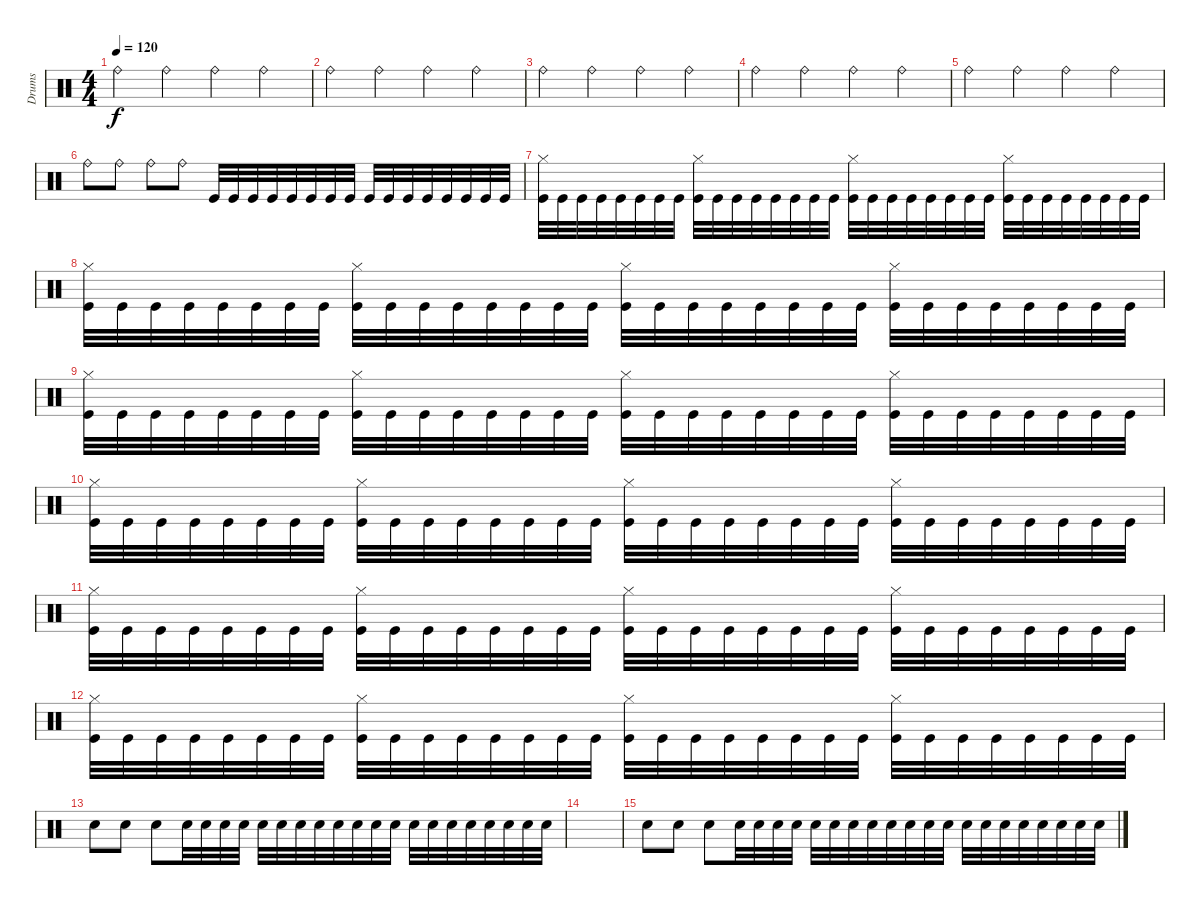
\track ("Drums" "Drums") {instrument percussion}
\staff {score}
\articulation defaults
\ts (4 4)
\tempo 120
\clef neutral
\ks c "Ride (bell)".4{dy f} "Ride (bell)".4 "Ride (bell)".4 "Ride (bell)".4
|
"Ride (bell)".4 "Ride (bell)".4 "Ride (bell)".4 "Ride (bell)".4 |
"Ride (bell)".4 "Ride (bell)".4 "Ride (bell)".4 "Ride (bell)".4 |
"Ride (bell)".4 "Ride (bell)".4 "Ride (bell)".4 "Ride (bell)".4 |
"Ride (bell)".4 "Ride (bell)".4 "Ride (bell)".4 "Ride (bell)".4 |
"Ride (bell)".8 "Ride (bell)".8 "Ride (bell)".8 "Ride (bell)".8 "Kick (hit)".32 "Kick (hit)".32 "Kick (hit)".32 "Kick (hit)".32 "Kick (hit)".32 "Kick (hit)".32 "Kick (hit)".32 "Kick (hit)".32 "Kick (hit)".32 "Kick (hit)".32 "Kick (hit)".32 "Kick (hit)".32 "Kick (hit)".32 "Kick (hit)".32 "Kick (hit)".32 "Kick (hit)".32 |
("Hi-Hat (closed)" "Kick (hit)").32 "Kick (hit)".32 "Kick (hit)".32 "Kick (hit)".32 "Kick (hit)".32 "Kick (hit)".32 "Kick (hit)".32 "Kick (hit)".32 ("Hi-Hat (closed)" "Kick (hit)").32 "Kick (hit)".32 "Kick (hit)".32 "Kick (hit)".32 "Kick (hit)".32 "Kick (hit)".32 "Kick (hit)".32 "Kick (hit)".32 ("Hi-Hat (closed)" "Kick (hit)").32 "Kick (hit)".32 "Kick (hit)".32 "Kick (hit)".32 "Kick (hit)".32 "Kick (hit)".32 "Kick (hit)".32 "Kick (hit)".32 ("Hi-Hat (closed)" "Kick (hit)").32 "Kick (hit)".32 "Kick (hit)".32 "Kick (hit)".32 "Kick (hit)".32 "Kick (hit)".32 "Kick (hit)".32 "Kick (hit)".32 |
("Hi-Hat (closed)" "Kick (hit)").32 "Kick (hit)".32 "Kick (hit)".32 "Kick (hit)".32 "Kick (hit)".32 "Kick (hit)".32 "Kick (hit)".32 "Kick (hit)".32 ("Hi-Hat (closed)" "Kick (hit)").32 "Kick (hit)".32 "Kick (hit)".32 "Kick (hit)".32 "Kick (hit)".32 "Kick (hit)".32 "Kick (hit)".32 "Kick (hit)".32 ("Hi-Hat (closed)" "Kick (hit)").32 "Kick (hit)".32 "Kick (hit)".32 "Kick (hit)".32 "Kick (hit)".32 "Kick (hit)".32 "Kick (hit)".32 "Kick (hit)".32 ("Hi-Hat (closed)" "Kick (hit)").32 "Kick (hit)".32 "Kick (hit)".32 "Kick (hit)".32 "Kick (hit)".32 "Kick (hit)".32 "Kick (hit)".32 "Kick (hit)".32 |
("Hi-Hat (closed)" "Kick (hit)").32 "Kick (hit)".32 "Kick (hit)".32 "Kick (hit)".32 "Kick (hit)".32 "Kick (hit)".32 "Kick (hit)".32 "Kick (hit)".32 ("Hi-Hat (closed)" "Kick (hit)").32 "Kick (hit)".32 "Kick (hit)".32 "Kick (hit)".32 "Kick (hit)".32 "Kick (hit)".32 "Kick (hit)".32 "Kick (hit)".32 ("Hi-Hat (closed)" "Kick (hit)").32 "Kick (hit)".32 "Kick (hit)".32 "Kick (hit)".32 "Kick (hit)".32 "Kick (hit)".32 "Kick (hit)".32 "Kick (hit)".32 ("Hi-Hat (closed)" "Kick (hit)").32 "Kick (hit)".32 "Kick (hit)".32 "Kick (hit)".32 "Kick (hit)".32 "Kick (hit)".32 "Kick (hit)".32 "Kick (hit)".32 |
("Hi-Hat (closed)" "Kick (hit)").32 "Kick (hit)".32 "Kick (hit)".32 "Kick (hit)".32 "Kick (hit)".32 "Kick (hit)".32 "Kick (hit)".32 "Kick (hit)".32 ("Hi-Hat (closed)" "Kick (hit)").32 "Kick (hit)".32 "Kick (hit)".32 "Kick (hit)".32 "Kick (hit)".32 "Kick (hit)".32 "Kick (hit)".32 "Kick (hit)".32 ("Hi-Hat (closed)" "Kick (hit)").32 "Kick (hit)".32 "Kick (hit)".32 "Kick (hit)".32 "Kick (hit)".32 "Kick (hit)".32 "Kick (hit)".32 "Kick (hit)".32 ("Hi-Hat (closed)" "Kick (hit)").32 "Kick (hit)".32 "Kick (hit)".32 "Kick (hit)".32 "Kick (hit)".32 "Kick (hit)".32 "Kick (hit)".32 "Kick (hit)".32 |
("Hi-Hat (closed)" "Kick (hit)").32 "Kick (hit)".32 "Kick (hit)".32 "Kick (hit)".32 "Kick (hit)".32 "Kick (hit)".32 "Kick (hit)".32 "Kick (hit)".32 ("Hi-Hat (closed)" "Kick (hit)").32 "Kick (hit)".32 "Kick (hit)".32 "Kick (hit)".32 "Kick (hit)".32 "Kick (hit)".32 "Kick (hit)".32 "Kick (hit)".32 ("Hi-Hat (closed)" "Kick (hit)").32 "Kick (hit)".32 "Kick (hit)".32 "Kick (hit)".32 "Kick (hit)".32 "Kick (hit)".32 "Kick (hit)".32 "Kick (hit)".32 ("Hi-Hat (closed)" "Kick (hit)").32 "Kick (hit)".32 "Kick (hit)".32 "Kick (hit)".32 "Kick (hit)".32 "Kick (hit)".32 "Kick (hit)".32 "Kick (hit)".32 |
("Hi-Hat (closed)" "Kick (hit)").32 "Kick (hit)".32 "Kick (hit)".32 "Kick (hit)".32 "Kick (hit)".32 "Kick (hit)".32 "Kick (hit)".32 "Kick (hit)".32 ("Hi-Hat (closed)" "Kick (hit)").32 "Kick (hit)".32 "Kick (hit)".32 "Kick (hit)".32 "Kick (hit)".32 "Kick (hit)".32 "Kick (hit)".32 "Kick (hit)".32 ("Hi-Hat (closed)" "Kick (hit)").32 "Kick (hit)".32 "Kick (hit)".32 "Kick (hit)".32 "Kick (hit)".32 "Kick (hit)".32 "Kick (hit)".32 "Kick (hit)".32 ("Hi-Hat (closed)" "Kick (hit)").32 "Kick (hit)".32 "Kick (hit)".32 "Kick (hit)".32 "Kick (hit)".32 "Kick (hit)".32 "Kick (hit)".32 "Kick (hit)".32 |
"Electric Snare (hit)".8 "Electric Snare (hit)".8 "Electric Snare (hit)".8 "Electric Snare (hit)".32 "Electric Snare (hit)".32 "Electric Snare (hit)".32 "Electric Snare (hit)".32 "Electric Snare (hit)".32 "Electric Snare (hit)".32 "Electric Snare (hit)".32 "Electric Snare (hit)".32 "Electric Snare (hit)".32 "Electric Snare (hit)".32 "Electric Snare (hit)".32 "Electric Snare (hit)".32 "Electric Snare (hit)".32 "Electric Snare (hit)".32 "Electric Snare (hit)".32 "Electric Snare (hit)".32 "Electric Snare (hit)".32 "Electric Snare (hit)".32 "Electric Snare (hit)".32 "Electric Snare (hit)".32 |
|
"Electric Snare (hit)".8 "Electric Snare (hit)".8 "Electric Snare (hit)".8 "Electric Snare (hit)".32 "Electric Snare (hit)".32 "Electric Snare (hit)".32 "Electric Snare (hit)".32 "Electric Snare (hit)".32 "Electric Snare (hit)".32 "Electric Snare (hit)".32 "Electric Snare (hit)".32 "Electric Snare (hit)".32 "Electric Snare (hit)".32 "Electric Snare (hit)".32 "Electric Snare (hit)".32 "Electric Snare (hit)".32 "Electric Snare (hit)".32 "Electric Snare (hit)".32 "Electric Snare (hit)".32 "Electric Snare (hit)".32 "Electric Snare (hit)".32 "Electric Snare (hit)".32 "Electric Snare (hit)".32
